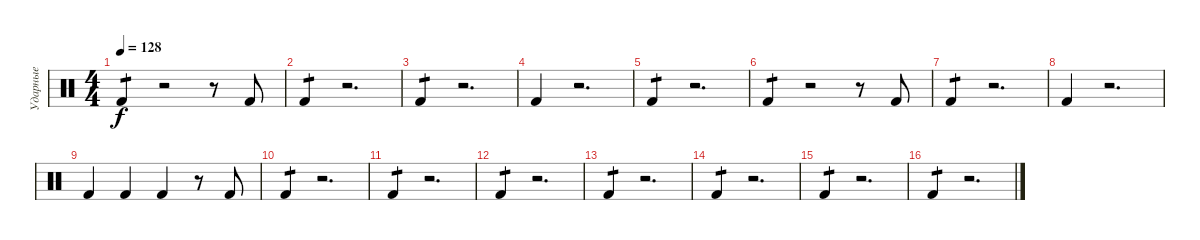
\track ("Ударные" "Ударные") {instrument percussion}
\staff {score}
\articulation defaults
\ts (4 4)
\tempo 128
\clef neutral
\ks c "Kick (hit) 2".4{tp 1 dy f}
r.2 r.8 "Kick (hit) 2".8 |
"Kick (hit) 2".4{tp 1} r.2{d} |
"Kick (hit) 2".4{tp 1} r.2{d} |
"Kick (hit) 2".4 r.2{d} |
"Kick (hit) 2".4{tp 1} r.2{d} |
"Kick (hit) 2".4{tp 1} r.2 r.8 "Kick (hit) 2".8 |
"Kick (hit) 2".4{tp 1} r.2{d} |
"Kick (hit) 2".4 r.2{d} |
"Kick (hit) 2".4 "Kick (hit) 2".4 "Kick (hit) 2".4 r.8 "Kick (hit) 2".8 |
"Kick (hit) 2".4{tp 1} r.2{d} |
"Kick (hit) 2".4{tp 1} r.2{d} |
"Kick (hit) 2".4{tp 1} r.2{d} |
"Kick (hit) 2".4{tp 1} r.2{d} |
"Kick (hit) 2".4{tp 1} r.2{d} |
"Kick (hit) 2".4{tp 1} r.2{d} |
"Kick (hit) 2".4{tp 1} r.2{d}
